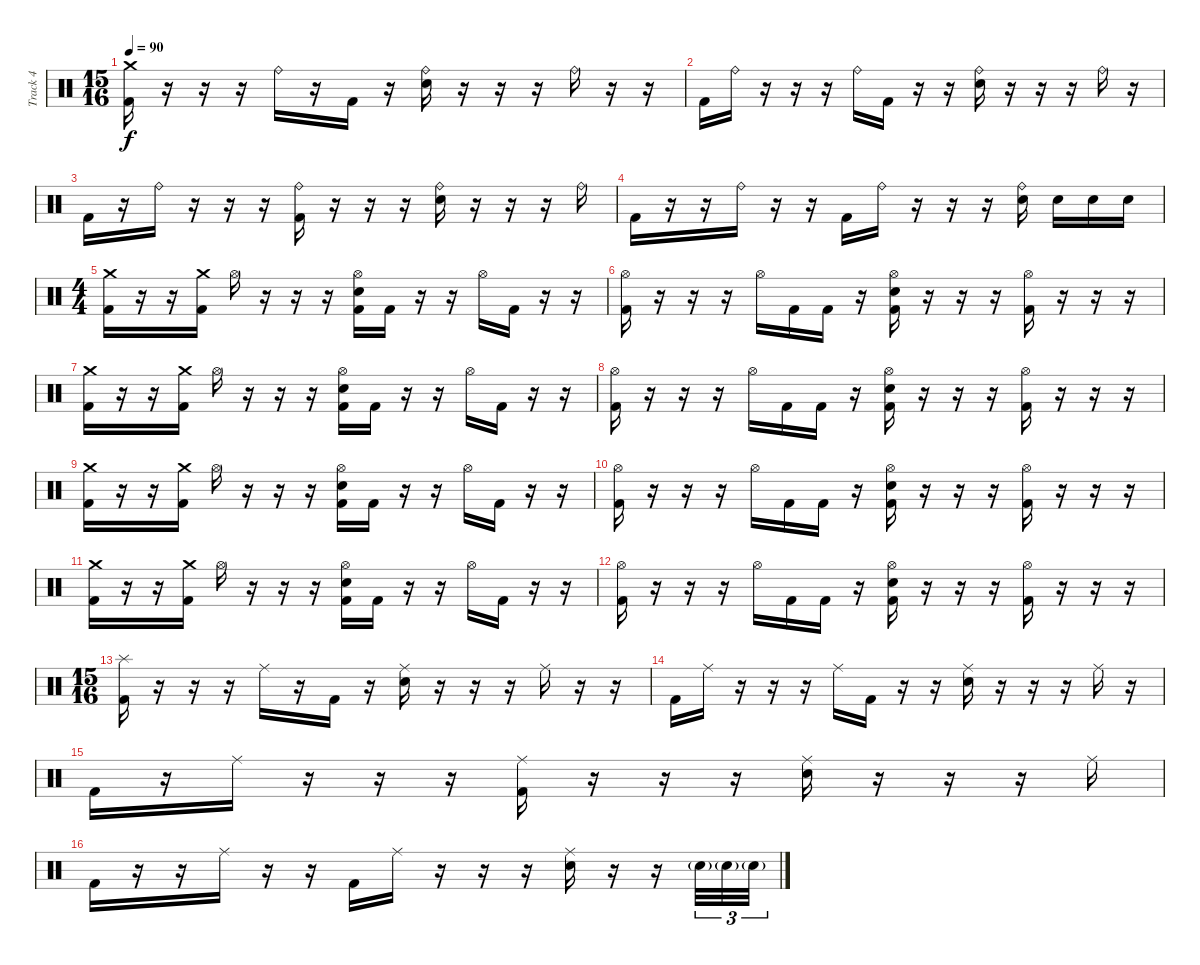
\track ("Track 4" "Track 4") {instrument percussion}
\staff {score}
\articulation defaults
\ts (15 16)
\tempo 90
\clef neutral
\ks c
("Crash medium (hit)" "Kick (hit) 2").16{dy f} r.16 r.16 r.16 "Ride (bell)".16 r.16 "Kick (hit) 2".16 r.16 ("Ride (bell)" "Electric Snare (hit)").16 r.16 r.16 r.16 "Ride (bell)".16 r.16 r.16 |
"Kick (hit) 2".16 "Ride (bell)".16 r.16 r.16 r.16 "Ride (bell)".16 "Kick (hit) 2".16 r.16 r.16 ("Ride (bell)" "Electric Snare (hit)").16 r.16 r.16 r.16 "Ride (bell)".16 r.16 |
"Kick (hit) 2".16 r.16 "Ride (bell)".16 r.16 r.16 r.16 ("Ride (bell)" "Kick (hit) 2").16 r.16 r.16 r.16 ("Ride (bell)" "Electric Snare (hit)").16 r.16 r.16 r.16 "Ride (bell)".16 |
"Kick (hit) 2".16 r.16 r.16 "Ride (bell)".16 r.16 r.16 "Kick (hit) 2".16 "Ride (bell)".16 r.16 r.16 r.16 ("Ride (bell)" "Electric Snare (hit)").16 "Electric Snare (hit)".16 "Electric Snare (hit)".16 "Electric Snare (hit)".16 |
\ts (4 4)
("Crash medium (hit)" "Kick (hit) 2").16 r.16 r.16 ("Crash medium (hit)" "Kick (hit) 2").16 "Hi-Hat (open)".16 r.16 r.16 r.16 ("Hi-Hat (open)" "Electric Snare (hit)" "Kick (hit) 2").16 "Kick (hit) 2".16 r.16 r.16 "Hi-Hat (open)".16 "Kick (hit) 2".16 r.16 r.16 |
("Hi-Hat (open)" "Kick (hit) 2").16 r.16 r.16 r.16 "Hi-Hat (open)".16 "Kick (hit) 2".16 "Kick (hit) 2".16 r.16 ("Hi-Hat (open)" "Electric Snare (hit)" "Kick (hit) 2").16 r.16 r.16 r.16 ("Hi-Hat (open)" "Kick (hit) 2").16 r.16 r.16 r.16 |
("Crash medium (hit)" "Kick (hit) 2").16 r.16 r.16 ("Crash medium (hit)" "Kick (hit) 2").16 "Hi-Hat (open)".16 r.16 r.16 r.16 ("Hi-Hat (open)" "Electric Snare (hit)" "Kick (hit) 2").16 "Kick (hit) 2".16 r.16 r.16 "Hi-Hat (open)".16 "Kick (hit) 2".16 r.16 r.16 |
("Hi-Hat (open)" "Kick (hit) 2").16 r.16 r.16 r.16 "Hi-Hat (open)".16 "Kick (hit) 2".16 "Kick (hit) 2".16 r.16 ("Hi-Hat (open)" "Electric Snare (hit)" "Kick (hit) 2").16 r.16 r.16 r.16 ("Hi-Hat (open)" "Kick (hit) 2").16 r.16 r.16 r.16 |
("Crash medium (hit)" "Kick (hit) 2").16 r.16 r.16 ("Crash medium (hit)" "Kick (hit) 2").16 "Hi-Hat (open)".16 r.16 r.16 r.16 ("Hi-Hat (open)" "Electric Snare (hit)" "Kick (hit) 2").16 "Kick (hit) 2".16 r.16 r.16 "Hi-Hat (open)".16 "Kick (hit) 2".16 r.16 r.16 |
("Hi-Hat (open)" "Kick (hit) 2").16 r.16 r.16 r.16 "Hi-Hat (open)".16 "Kick (hit) 2".16 "Kick (hit) 2".16 r.16 ("Hi-Hat (open)" "Electric Snare (hit)" "Kick (hit) 2").16 r.16 r.16 r.16 ("Hi-Hat (open)" "Kick (hit) 2").16 r.16 r.16 r.16 |
("Crash medium (hit)" "Kick (hit) 2").16 r.16 r.16 ("Crash medium (hit)" "Kick (hit) 2").16 "Hi-Hat (open)".16 r.16 r.16 r.16 ("Hi-Hat (open)" "Electric Snare (hit)" "Kick (hit) 2").16 "Kick (hit) 2".16 r.16 r.16 "Hi-Hat (open)".16 "Kick (hit) 2".16 r.16 r.16 |
("Hi-Hat (open)" "Kick (hit) 2").16 r.16 r.16 r.16 "Hi-Hat (open)".16 "Kick (hit) 2".16 "Kick (hit) 2".16 r.16 ("Hi-Hat (open)" "Electric Snare (hit)" "Kick (hit) 2").16 r.16 r.16 r.16 ("Hi-Hat (open)" "Kick (hit) 2").16 r.16 r.16 r.16 |
\ts (15 16)
("Splash (hit)" "Kick (hit) 2").16 r.16 r.16 r.16 "Ride (middle)".16 r.16 "Kick (hit) 2".16 r.16 ("Ride (middle)" "Electric Snare (hit)").16 r.16 r.16 r.16 "Ride (middle)".16 r.16 r.16 |
"Kick (hit) 2".16 "Ride (middle)".16 r.16 r.16 r.16 "Ride (middle)".16 "Kick (hit) 2".16 r.16 r.16 ("Ride (middle)" "Electric Snare (hit)").16 r.16 r.16 r.16 "Ride (middle)".16 r.16 |
"Kick (hit) 2".16 r.16 "Ride (middle)".16 r.16 r.16 r.16 ("Ride (middle)" "Kick (hit) 2").16 r.16 r.16 r.16 ("Ride (middle)" "Electric Snare (hit)").16 r.16 r.16 r.16 "Ride (middle)".16 |
"Kick (hit) 2".16 r.16 r.16 "Ride (middle)".16 r.16 r.16 "Kick (hit) 2".16 "Ride (middle)".16 r.16 r.16 r.16 ("Ride (middle)" "Electric Snare (hit)").16 r.16 r.16 "Electric Snare (hit)"{g}.32{tu (3 2)} "Electric Snare (hit)"{g}.32{tu (3 2)} "Electric Snare (hit)"{g}.32{tu (3 2)}
